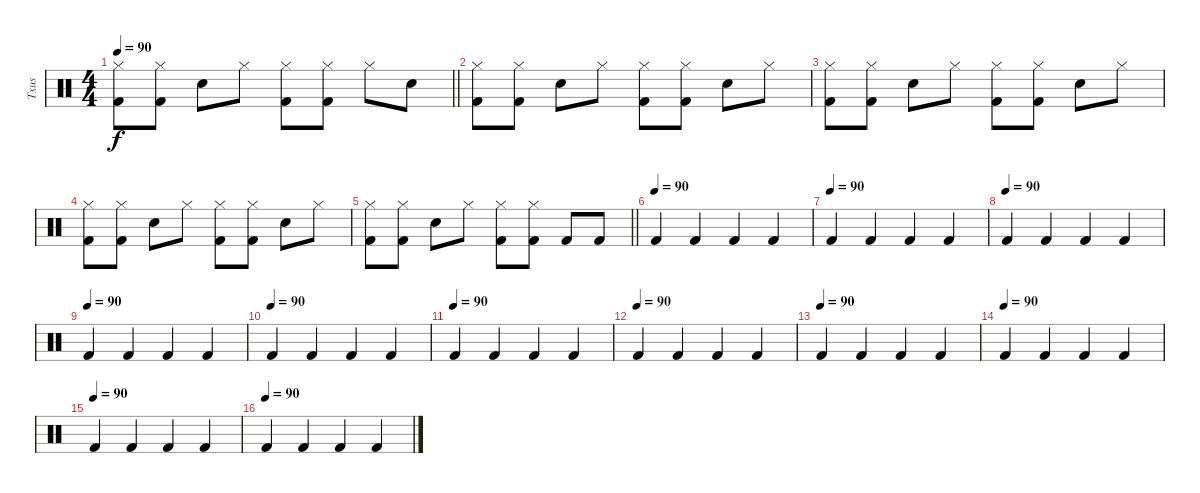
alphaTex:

\track ("Txus" "Txus") {instrument percussion}
\staff {score}
\articulation defaults
\ts (4 4)
\tempo 90
\clef neutral
\barLineRight lightlight
\ks c
("Hi-Hat (closed)" "Kick (hit) 2").8{dy f} ("Hi-Hat (closed)" "Kick (hit) 2").8 "Electric Snare (hit)".8 "Hi-Hat (closed)".8 ("Hi-Hat (closed)" "Kick (hit) 2").8 ("Hi-Hat (closed)" "Kick (hit) 2").8 "Hi-Hat (closed)".8 "Snare (hit) 2".8 |
("Hi-Hat (closed)" "Kick (hit) 2").8 ("Hi-Hat (closed)" "Kick (hit) 2").8 "Electric Snare (hit)".8 "Hi-Hat (closed)".8 ("Hi-Hat (closed)" "Kick (hit) 2").8 ("Hi-Hat (closed)" "Kick (hit) 2").8 "Electric Snare (hit)".8 "Hi-Hat (closed)".8 |
("Hi-Hat (closed)" "Kick (hit) 2").8 ("Hi-Hat (closed)" "Kick (hit) 2").8 "Electric Snare (hit)".8 "Hi-Hat (closed)".8 ("Hi-Hat (closed)" "Kick (hit) 2").8 ("Hi-Hat (closed)" "Kick (hit) 2").8 "Electric Snare (hit)".8 "Hi-Hat (closed)".8 |
("Hi-Hat (closed)" "Kick (hit) 2").8 ("Hi-Hat (closed)" "Kick (hit) 2").8 "Electric Snare (hit)".8 "Hi-Hat (closed)".8 ("Hi-Hat (closed)" "Kick (hit) 2").8 ("Hi-Hat (closed)" "Kick (hit) 2").8 "Electric Snare (hit)".8 "Hi-Hat (closed)".8 |
\barLineRight lightlight
("Hi-Hat (closed)" "Kick (hit) 2").8 ("Hi-Hat (closed)" "Kick (hit) 2").8 "Electric Snare (hit)".8 "Hi-Hat (closed)".8 ("Hi-Hat (closed)" "Kick (hit) 2").8 ("Hi-Hat (closed)" "Kick (hit) 2").8 "Kick (hit) 2".8 "Kick (hit) 2".8 |
\tempo 100
\tempo (90)
"Kick (hit) 2".4 "Kick (hit) 2".4 "Kick (hit) 2".4 "Kick (hit) 2".4 |
\tempo (90)
"Kick (hit) 2".4 "Kick (hit) 2".4 "Kick (hit) 2".4 "Kick (hit) 2".4 |
\tempo (90)
"Kick (hit) 2".4 "Kick (hit) 2".4 "Kick (hit) 2".4 "Kick (hit) 2".4 |
\tempo (90)
"Kick (hit) 2".4 "Kick (hit) 2".4 "Kick (hit) 2".4 "Kick (hit) 2".4 |
\tempo (90)
"Kick (hit) 2".4 "Kick (hit) 2".4 "Kick (hit) 2".4 "Kick (hit) 2".4 |
\tempo (90)
"Kick (hit) 2".4 "Kick (hit) 2".4 "Kick (hit) 2".4 "Kick (hit) 2".4 |
\tempo (90)
"Kick (hit) 2".4 "Kick (hit) 2".4 "Kick (hit) 2".4 "Kick (hit) 2".4 |
\tempo (90)
"Kick (hit) 2".4 "Kick (hit) 2".4 "Kick (hit) 2".4 "Kick (hit) 2".4 |
\tempo 99
\tempo (90)
"Kick (hit) 2".4 "Kick (hit) 2".4 "Kick (hit) 2".4 "Kick (hit) 2".4 |
\tempo (90)
"Kick (hit) 2".4 "Kick (hit) 2".4 "Kick (hit) 2".4 "Kick (hit) 2".4 |
\tempo (90)
"Kick (hit) 2".4 "Kick (hit) 2".4 "Kick (hit) 2".4 "Kick (hit) 2".4
